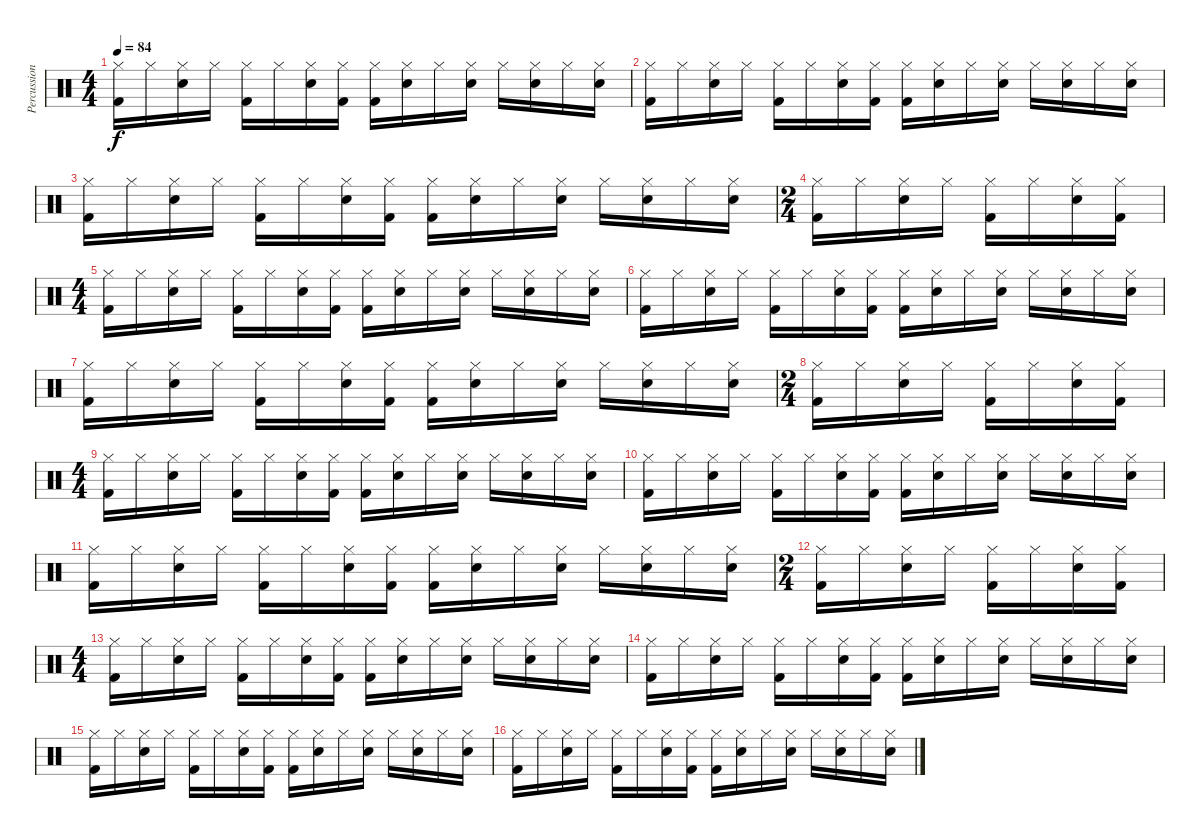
\track ("Percussion" "Percussion") {instrument percussion}
\staff {score}
\articulation defaults
\ts (4 4)
\tempo 84
\clef neutral
\ks c
("Hi-Hat (closed)" "Kick (hit) 2").16{dy f} "Hi-Hat (closed)".16 ("Hi-Hat (closed)" "Snare (hit) 2").16 "Hi-Hat (closed)".16 ("Hi-Hat (closed)" "Kick (hit) 2").16 "Hi-Hat (closed)".16 ("Hi-Hat (closed)" "Snare (hit) 2").16 ("Hi-Hat (closed)" "Kick (hit) 2").16 ("Hi-Hat (closed)" "Kick (hit) 2").16 ("Hi-Hat (closed)" "Snare (hit) 2").16 "Hi-Hat (closed)".16 ("Hi-Hat (closed)" "Snare (hit) 2").16 "Hi-Hat (closed)".16 ("Hi-Hat (closed)" "Snare (hit) 2").16 "Hi-Hat (closed)".16 ("Hi-Hat (closed)" "Snare (hit) 2").16 |
("Hi-Hat (closed)" "Kick (hit) 2").16 "Hi-Hat (closed)".16 ("Hi-Hat (closed)" "Snare (hit) 2").16 "Hi-Hat (closed)".16 ("Hi-Hat (closed)" "Kick (hit) 2").16 "Hi-Hat (closed)".16 ("Hi-Hat (closed)" "Snare (hit) 2").16 ("Hi-Hat (closed)" "Kick (hit) 2").16 ("Hi-Hat (closed)" "Kick (hit) 2").16 ("Hi-Hat (closed)" "Snare (hit) 2").16 "Hi-Hat (closed)".16 ("Hi-Hat (closed)" "Snare (hit) 2").16 "Hi-Hat (closed)".16 ("Hi-Hat (closed)" "Snare (hit) 2").16 "Hi-Hat (closed)".16 ("Hi-Hat (closed)" "Snare (hit) 2").16 |
("Hi-Hat (closed)" "Kick (hit) 2").16 "Hi-Hat (closed)".16 ("Hi-Hat (closed)" "Snare (hit) 2").16 "Hi-Hat (closed)".16 ("Hi-Hat (closed)" "Kick (hit) 2").16 "Hi-Hat (closed)".16 ("Hi-Hat (closed)" "Snare (hit) 2").16 ("Hi-Hat (closed)" "Kick (hit) 2").16 ("Hi-Hat (closed)" "Kick (hit) 2").16 ("Hi-Hat (closed)" "Snare (hit) 2").16 "Hi-Hat (closed)".16 ("Hi-Hat (closed)" "Snare (hit) 2").16 "Hi-Hat (closed)".16 ("Hi-Hat (closed)" "Snare (hit) 2").16 "Hi-Hat (closed)".16 ("Hi-Hat (closed)" "Snare (hit) 2").16 |
\ts (2 4)
("Hi-Hat (closed)" "Kick (hit) 2").16 "Hi-Hat (closed)".16 ("Hi-Hat (closed)" "Snare (hit) 2").16 "Hi-Hat (closed)".16 ("Hi-Hat (closed)" "Kick (hit) 2").16 "Hi-Hat (closed)".16 ("Hi-Hat (closed)" "Snare (hit) 2").16 ("Hi-Hat (closed)" "Kick (hit) 2").16 |
\ts (4 4)
("Hi-Hat (closed)" "Kick (hit) 2").16 "Hi-Hat (closed)".16 ("Hi-Hat (closed)" "Snare (hit) 2").16 "Hi-Hat (closed)".16 ("Hi-Hat (closed)" "Kick (hit) 2").16 "Hi-Hat (closed)".16 ("Hi-Hat (closed)" "Snare (hit) 2").16 ("Hi-Hat (closed)" "Kick (hit) 2").16 ("Hi-Hat (closed)" "Kick (hit) 2").16 ("Hi-Hat (closed)" "Snare (hit) 2").16 "Hi-Hat (closed)".16 ("Hi-Hat (closed)" "Snare (hit) 2").16 "Hi-Hat (closed)".16 ("Hi-Hat (closed)" "Snare (hit) 2").16 "Hi-Hat (closed)".16 ("Hi-Hat (closed)" "Snare (hit) 2").16 |
("Hi-Hat (closed)" "Kick (hit) 2").16 "Hi-Hat (closed)".16 ("Hi-Hat (closed)" "Snare (hit) 2").16 "Hi-Hat (closed)".16 ("Hi-Hat (closed)" "Kick (hit) 2").16 "Hi-Hat (closed)".16 ("Hi-Hat (closed)" "Snare (hit) 2").16 ("Hi-Hat (closed)" "Kick (hit) 2").16 ("Hi-Hat (closed)" "Kick (hit) 2").16 ("Hi-Hat (closed)" "Snare (hit) 2").16 "Hi-Hat (closed)".16 ("Hi-Hat (closed)" "Snare (hit) 2").16 "Hi-Hat (closed)".16 ("Hi-Hat (closed)" "Snare (hit) 2").16 "Hi-Hat (closed)".16 ("Hi-Hat (closed)" "Snare (hit) 2").16 |
("Hi-Hat (closed)" "Kick (hit) 2").16 "Hi-Hat (closed)".16 ("Hi-Hat (closed)" "Snare (hit) 2").16 "Hi-Hat (closed)".16 ("Hi-Hat (closed)" "Kick (hit) 2").16 "Hi-Hat (closed)".16 ("Hi-Hat (closed)" "Snare (hit) 2").16 ("Hi-Hat (closed)" "Kick (hit) 2").16 ("Hi-Hat (closed)" "Kick (hit) 2").16 ("Hi-Hat (closed)" "Snare (hit) 2").16 "Hi-Hat (closed)".16 ("Hi-Hat (closed)" "Snare (hit) 2").16 "Hi-Hat (closed)".16 ("Hi-Hat (closed)" "Snare (hit) 2").16 "Hi-Hat (closed)".16 ("Hi-Hat (closed)" "Snare (hit) 2").16 |
\ts (2 4)
("Hi-Hat (closed)" "Kick (hit) 2").16 "Hi-Hat (closed)".16 ("Hi-Hat (closed)" "Snare (hit) 2").16 "Hi-Hat (closed)".16 ("Hi-Hat (closed)" "Kick (hit) 2").16 "Hi-Hat (closed)".16 ("Hi-Hat (closed)" "Snare (hit) 2").16 ("Hi-Hat (closed)" "Kick (hit) 2").16 |
\ts (4 4)
("Hi-Hat (closed)" "Kick (hit) 2").16 "Hi-Hat (closed)".16 ("Hi-Hat (closed)" "Snare (hit) 2").16 "Hi-Hat (closed)".16 ("Hi-Hat (closed)" "Kick (hit) 2").16 "Hi-Hat (closed)".16 ("Hi-Hat (closed)" "Snare (hit) 2").16 ("Hi-Hat (closed)" "Kick (hit) 2").16 ("Hi-Hat (closed)" "Kick (hit) 2").16 ("Hi-Hat (closed)" "Snare (hit) 2").16 "Hi-Hat (closed)".16 ("Hi-Hat (closed)" "Snare (hit) 2").16 "Hi-Hat (closed)".16 ("Hi-Hat (closed)" "Snare (hit) 2").16 "Hi-Hat (closed)".16 ("Hi-Hat (closed)" "Snare (hit) 2").16 |
("Hi-Hat (closed)" "Kick (hit) 2").16 "Hi-Hat (closed)".16 ("Hi-Hat (closed)" "Snare (hit) 2").16 "Hi-Hat (closed)".16 ("Hi-Hat (closed)" "Kick (hit) 2").16 "Hi-Hat (closed)".16 ("Hi-Hat (closed)" "Snare (hit) 2").16 ("Hi-Hat (closed)" "Kick (hit) 2").16 ("Hi-Hat (closed)" "Kick (hit) 2").16 ("Hi-Hat (closed)" "Snare (hit) 2").16 "Hi-Hat (closed)".16 ("Hi-Hat (closed)" "Snare (hit) 2").16 "Hi-Hat (closed)".16 ("Hi-Hat (closed)" "Snare (hit) 2").16 "Hi-Hat (closed)".16 ("Hi-Hat (closed)" "Snare (hit) 2").16 |
("Hi-Hat (closed)" "Kick (hit) 2").16 "Hi-Hat (closed)".16 ("Hi-Hat (closed)" "Snare (hit) 2").16 "Hi-Hat (closed)".16 ("Hi-Hat (closed)" "Kick (hit) 2").16 "Hi-Hat (closed)".16 ("Hi-Hat (closed)" "Snare (hit) 2").16 ("Hi-Hat (closed)" "Kick (hit) 2").16 ("Hi-Hat (closed)" "Kick (hit) 2").16 ("Hi-Hat (closed)" "Snare (hit) 2").16 "Hi-Hat (closed)".16 ("Hi-Hat (closed)" "Snare (hit) 2").16 "Hi-Hat (closed)".16 ("Hi-Hat (closed)" "Snare (hit) 2").16 "Hi-Hat (closed)".16 ("Hi-Hat (closed)" "Snare (hit) 2").16 |
\ts (2 4)
("Hi-Hat (closed)" "Kick (hit) 2").16 "Hi-Hat (closed)".16 ("Hi-Hat (closed)" "Snare (hit) 2").16 "Hi-Hat (closed)".16 ("Hi-Hat (closed)" "Kick (hit) 2").16 "Hi-Hat (closed)".16 ("Hi-Hat (closed)" "Snare (hit) 2").16 ("Hi-Hat (closed)" "Kick (hit) 2").16 |
\ts (4 4)
("Hi-Hat (closed)" "Kick (hit) 2").16 "Hi-Hat (closed)".16 ("Hi-Hat (closed)" "Snare (hit) 2").16 "Hi-Hat (closed)".16 ("Hi-Hat (closed)" "Kick (hit) 2").16 "Hi-Hat (closed)".16 ("Hi-Hat (closed)" "Snare (hit) 2").16 ("Hi-Hat (closed)" "Kick (hit) 2").16 ("Hi-Hat (closed)" "Kick (hit) 2").16 ("Hi-Hat (closed)" "Snare (hit) 2").16 "Hi-Hat (closed)".16 ("Hi-Hat (closed)" "Snare (hit) 2").16 "Hi-Hat (closed)".16 ("Hi-Hat (closed)" "Snare (hit) 2").16 "Hi-Hat (closed)".16 ("Hi-Hat (closed)" "Snare (hit) 2").16 |
("Hi-Hat (closed)" "Kick (hit) 2").16 "Hi-Hat (closed)".16 ("Hi-Hat (closed)" "Snare (hit) 2").16 "Hi-Hat (closed)".16 ("Hi-Hat (closed)" "Kick (hit) 2").16 "Hi-Hat (closed)".16 ("Hi-Hat (closed)" "Snare (hit) 2").16 ("Hi-Hat (closed)" "Kick (hit) 2").16 ("Hi-Hat (closed)" "Kick (hit) 2").16 ("Hi-Hat (closed)" "Snare (hit) 2").16 "Hi-Hat (closed)".16 ("Hi-Hat (closed)" "Snare (hit) 2").16 "Hi-Hat (closed)".16 ("Hi-Hat (closed)" "Snare (hit) 2").16 "Hi-Hat (closed)".16 ("Hi-Hat (closed)" "Snare (hit) 2").16 |
("Hi-Hat (closed)" "Kick (hit) 2").16 "Hi-Hat (closed)".16 ("Hi-Hat (closed)" "Snare (hit) 2").16 "Hi-Hat (closed)".16 ("Hi-Hat (closed)" "Kick (hit) 2").16 "Hi-Hat (closed)".16 ("Hi-Hat (closed)" "Snare (hit) 2").16 ("Hi-Hat (closed)" "Kick (hit) 2").16 ("Hi-Hat (closed)" "Kick (hit) 2").16 ("Hi-Hat (closed)" "Snare (hit) 2").16 "Hi-Hat (closed)".16 ("Hi-Hat (closed)" "Snare (hit) 2").16 "Hi-Hat (closed)".16 ("Hi-Hat (closed)" "Snare (hit) 2").16 "Hi-Hat (closed)".16 ("Hi-Hat (closed)" "Snare (hit) 2").16 |
("Hi-Hat (closed)" "Kick (hit) 2").16 "Hi-Hat (closed)".16 ("Hi-Hat (closed)" "Snare (hit) 2").16 "Hi-Hat (closed)".16 ("Hi-Hat (closed)" "Kick (hit) 2").16 "Hi-Hat (closed)".16 ("Hi-Hat (closed)" "Snare (hit) 2").16 ("Hi-Hat (closed)" "Kick (hit) 2").16 ("Hi-Hat (closed)" "Kick (hit) 2").16 ("Hi-Hat (closed)" "Snare (hit) 2").16 "Hi-Hat (closed)".16 ("Hi-Hat (closed)" "Snare (hit) 2").16 "Hi-Hat (closed)".16 ("Hi-Hat (closed)" "Snare (hit) 2").16 "Hi-Hat (closed)".16 ("Hi-Hat (closed)" "Snare (hit) 2").16
